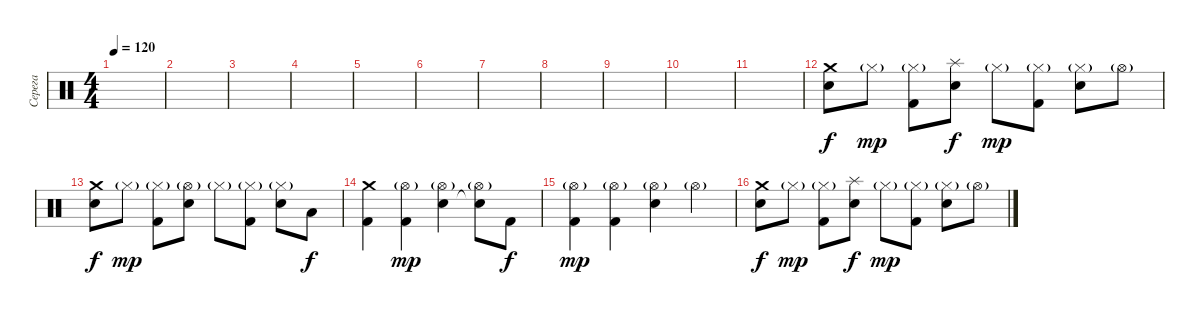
\track ("Серега" "Серега") {instrument percussion}
\staff {score}
\articulation defaults
\ts (4 4)
\tempo 120
\clef neutral
\ks c
|
|
|
|
|
|
|
|
|
|
|
("Electric Snare (hit)" "Crash medium (hit)").8 "Hi-Hat (closed)"{g}.8{dy mp} ("Kick (hit) 2" "Hi-Hat (closed)"{g}).8 ("Electric Snare (hit)" "Splash (hit)").8{dy f} "Hi-Hat (closed)"{g}.8{dy mp} ("Kick (hit) 2" "Hi-Hat (closed)"{g}).8 ("Electric Snare (hit)" "Hi-Hat (closed)"{g}).8 "Hi-Hat (open)"{g}.8 |
("Electric Snare (hit)" "Crash medium (hit)").8{dy f} "Hi-Hat (closed)"{g}.8{dy mp} ("Kick (hit) 2" "Hi-Hat (closed)"{g}).8 ("Electric Snare (hit)" "Hi-Hat (open)"{g}).8 "Hi-Hat (closed)"{g}.8 ("Kick (hit) 2" "Hi-Hat (closed)"{g}).8 ("Electric Snare (hit)" "Hi-Hat (closed)"{g}).8 "Low Tom (hit)".8{dy f} |
("Kick (hit) 2" "Crash medium (hit)").4 ("Kick (hit) 2" "Hi-Hat (open)"{g}).4{dy mp} ("Electric Snare (hit)" "Hi-Hat (open)"{g}).4 ("Snare (hit)"{t} "Hi-Hat (open)"{g}).8 "Kick (hit) 2".8{dy f} |
("Kick (hit) 2" "Hi-Hat (open)"{g}).4{dy mp} ("Kick (hit) 2" "Hi-Hat (open)"{g}).4 ("Electric Snare (hit)" "Hi-Hat (open)"{g}).4 "Hi-Hat (open)"{g}.4 |
("Electric Snare (hit)" "Crash medium (hit)").8{dy f} "Hi-Hat (closed)"{g}.8{dy mp} ("Kick (hit) 2" "Hi-Hat (closed)"{g}).8 ("Electric Snare (hit)" "Splash (hit)").8{dy f} "Hi-Hat (closed)"{g}.8{dy mp} ("Kick (hit) 2" "Hi-Hat (closed)"{g}).8 ("Electric Snare (hit)" "Hi-Hat (closed)"{g}).8 "Hi-Hat (open)"{g}.8
